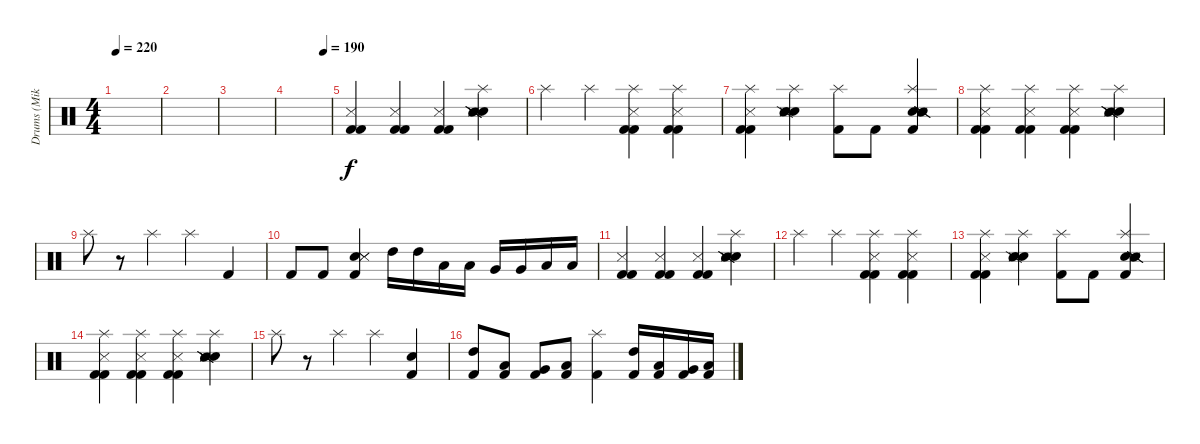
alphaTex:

\track ("Drums (Mike Justian)" "Drums (Mik") {instrument percussion}
\staff {score}
\articulation defaults
\ts (4 4)
\tempo 220
\clef neutral
\ks c
|
|
|
\tempo (190 0.8333333333333334)
|
("Kick (hit) 2" "Snare (side stick) 3" "Kick (hit) 2").4 ("Kick (hit) 2" "Snare (side stick) 3" "Kick (hit) 2").4 ("Kick (hit) 2" "Snare (side stick) 3" "Kick (hit) 2").4 ("Splash (hit)" "Electric Snare (hit)" "Snare (side stick) 2" "Snare (side stick) 2" "Snare (side stick) 3" "Snare (side stick) 3").4 |
"Splash (hit)".4 "Splash (hit)".4 ("Splash (hit)" "Kick (hit) 2" "Snare (side stick) 3" "Kick (hit) 2").4 ("Splash (hit)" "Kick (hit) 2" "Snare (side stick) 3" "Kick (hit) 2").4 |
("Splash (hit)" "Kick (hit) 2" "Snare (side stick) 3" "Kick (hit) 2").4 ("Splash (hit)" "Electric Snare (hit)" "Snare (hit)" "Snare (side stick) 2" "Snare (side stick) 3" "Snare (side stick) 3").4 ("Splash (hit)" "Kick (hit) 2").8 "Kick (hit) 2".8 ("Splash (hit)" "Electric Snare (hit)" "Snare (side stick) 2" "Snare (side stick) 2" "Snare (side stick) 3" "Kick (hit) 2").4 |
("Splash (hit)" "Kick (hit) 2" "Snare (side stick) 3" "Kick (hit) 2").4 ("Splash (hit)" "Kick (hit) 2" "Snare (side stick) 3" "Kick (hit) 2").4 ("Splash (hit)" "Kick (hit) 2" "Snare (side stick) 3" "Kick (hit) 2").4 ("Splash (hit)" "Electric Snare (hit)" "Snare (side stick) 2" "Snare (side stick) 2" "Snare (side stick) 3" "Snare (side stick) 3").4 |
"Splash (hit)".8 r.8 "Splash (hit)".4 "Splash (hit)".4 "Kick (hit) 2".4 |
"Kick (hit) 2".8 "Kick (hit) 2".8 ("Electric Snare (hit)" "Kick (hit) 2" "Snare (side stick) 3" "Snare (side stick) 3").4 "High Tom (hit)".16 "High Tom (hit)".16 "Low Tom (hit)".16 "Low Tom (hit)".16 "Very Low Tom (hit)".16 "Very Low Tom (hit)".16 "Low Floor Tom (hit)".16 "Low Floor Tom (hit)".16 |
("Kick (hit) 2" "Snare (side stick) 3" "Kick (hit) 2").4 ("Kick (hit) 2" "Snare (side stick) 3" "Kick (hit) 2").4 ("Kick (hit) 2" "Snare (side stick) 3" "Kick (hit) 2").4 ("Splash (hit)" "Electric Snare (hit)" "Snare (side stick) 2" "Snare (side stick) 2" "Snare (side stick) 3" "Snare (side stick) 3").4 |
"Splash (hit)".4 "Splash (hit)".4 ("Splash (hit)" "Kick (hit) 2" "Snare (side stick) 3" "Kick (hit) 2").4 ("Splash (hit)" "Kick (hit) 2" "Snare (side stick) 3" "Kick (hit) 2").4 |
("Splash (hit)" "Kick (hit) 2" "Snare (side stick) 3" "Kick (hit) 2").4 ("Splash (hit)" "Electric Snare (hit)" "Snare (hit)" "Snare (side stick) 2" "Snare (side stick) 3" "Snare (side stick) 3").4 ("Splash (hit)" "Kick (hit) 2").8 "Kick (hit) 2".8 ("Splash (hit)" "Electric Snare (hit)" "Snare (side stick) 2" "Snare (side stick) 2" "Snare (side stick) 3" "Kick (hit) 2").4 |
("Splash (hit)" "Kick (hit) 2" "Snare (side stick) 3" "Kick (hit) 2").4 ("Splash (hit)" "Kick (hit) 2" "Snare (side stick) 3" "Kick (hit) 2").4 ("Splash (hit)" "Kick (hit) 2" "Snare (side stick) 3" "Kick (hit) 2").4 ("Splash (hit)" "Electric Snare (hit)" "Snare (side stick) 2" "Snare (side stick) 2" "Snare (side stick) 3" "Snare (side stick) 3").4 |
"Splash (hit)".8 r.8 "Splash (hit)".4 "Splash (hit)".4 ("Electric Snare (hit)" "Kick (hit) 2").4 |
("Kick (hit) 2" "High Tom (hit)").8 ("Kick (hit) 2" "Low Tom (hit)").8 ("Kick (hit) 2" "Very Low Tom (hit)").8 ("Kick (hit) 2" "Low Floor Tom (hit)").8 ("Splash (hit)" "Kick (hit) 2").4 ("Kick (hit) 2" "High Tom (hit)").16 ("Kick (hit) 2" "Low Tom (hit)").16 ("Kick (hit) 2" "Very Low Tom (hit)").16 ("Kick (hit) 2" "Low Floor Tom (hit)").16
